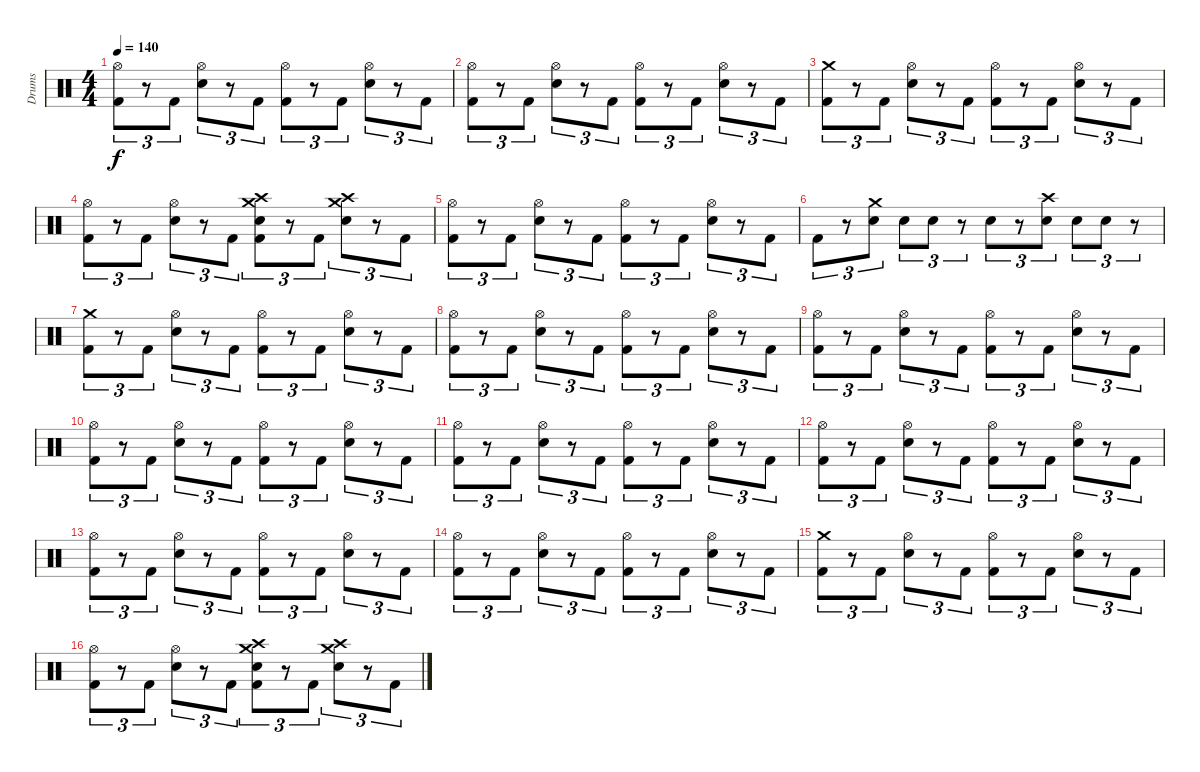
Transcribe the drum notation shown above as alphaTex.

\track ("Drums" "Drums") {instrument percussion}
\staff {score}
\articulation defaults
\ts (4 4)
\tempo 140
\clef neutral
\ks c
("Hi-Hat (open)" "Kick (hit) 2").8{tu (3 2) dy f} r.8{tu (3 2)} "Kick (hit) 2".8{tu (3 2)} ("Hi-Hat (open)" "Snare (hit) 2").8{tu (3 2)} r.8{tu (3 2)} "Kick (hit) 2".8{tu (3 2)} ("Hi-Hat (open)" "Kick (hit) 2").8{tu (3 2)} r.8{tu (3 2)} "Kick (hit) 2".8{tu (3 2)} ("Hi-Hat (open)" "Snare (hit) 2").8{tu (3 2)} r.8{tu (3 2)} "Kick (hit) 2".8{tu (3 2)} |
("Hi-Hat (open)" "Kick (hit) 2").8{tu (3 2)} r.8{tu (3 2)} "Kick (hit) 2".8{tu (3 2)} ("Hi-Hat (open)" "Snare (hit) 2").8{tu (3 2)} r.8{tu (3 2)} "Kick (hit) 2".8{tu (3 2)} ("Hi-Hat (open)" "Kick (hit) 2").8{tu (3 2)} r.8{tu (3 2)} "Kick (hit) 2".8{tu (3 2)} ("Hi-Hat (open)" "Snare (hit) 2").8{tu (3 2)} r.8{tu (3 2)} "Kick (hit) 2".8{tu (3 2)} |
("Crash medium (hit)" "Kick (hit) 2").8{tu (3 2)} r.8{tu (3 2)} "Kick (hit) 2".8{tu (3 2)} ("Hi-Hat (open)" "Snare (hit) 2").8{tu (3 2)} r.8{tu (3 2)} "Kick (hit) 2".8{tu (3 2)} ("Hi-Hat (open)" "Kick (hit) 2").8{tu (3 2)} r.8{tu (3 2)} "Kick (hit) 2".8{tu (3 2)} ("Hi-Hat (open)" "Snare (hit) 2").8{tu (3 2)} r.8{tu (3 2)} "Kick (hit) 2".8{tu (3 2)} |
("Hi-Hat (open)" "Kick (hit) 2").8{tu (3 2)} r.8{tu (3 2)} "Kick (hit) 2".8{tu (3 2)} ("Hi-Hat (open)" "Snare (hit) 2").8{tu (3 2)} r.8{tu (3 2)} "Kick (hit) 2".8{tu (3 2)} ("Crash medium (hit)" "Crash high (hit)" "Snare (hit) 2" "Kick (hit) 2").8{tu (3 2)} r.8{tu (3 2)} "Kick (hit) 2".8{tu (3 2)} ("Crash medium (hit)" "Crash high (hit)" "Snare (hit) 2").8{tu (3 2)} r.8{tu (3 2)} "Kick (hit) 2".8{tu (3 2)} |
("Hi-Hat (open)" "Kick (hit) 2").8{tu (3 2)} r.8{tu (3 2)} "Kick (hit) 2".8{tu (3 2)} ("Hi-Hat (open)" "Snare (hit) 2").8{tu (3 2)} r.8{tu (3 2)} "Kick (hit) 2".8{tu (3 2)} ("Hi-Hat (open)" "Kick (hit) 2").8{tu (3 2)} r.8{tu (3 2)} "Kick (hit) 2".8{tu (3 2)} ("Hi-Hat (open)" "Snare (hit) 2").8{tu (3 2)} r.8{tu (3 2)} "Kick (hit) 2".8{tu (3 2)} |
"Kick (hit) 2".8{tu (3 2)} r.8{tu (3 2)} ("Crash medium (hit)" "Snare (hit) 2").8{tu (3 2)} "Snare (hit) 2".8{tu (3 2)} "Snare (hit) 2".8{tu (3 2)} r.8{tu (3 2)} "Snare (hit) 2".8{tu (3 2)} r.8{tu (3 2)} ("Crash high (hit)" "Snare (hit) 2").8{tu (3 2)} "Snare (hit) 2".8{tu (3 2)} "Snare (hit) 2".8{tu (3 2)} r.8{tu (3 2)} |
("Crash medium (hit)" "Kick (hit) 2").8{tu (3 2)} r.8{tu (3 2)} "Kick (hit) 2".8{tu (3 2)} ("Hi-Hat (open)" "Snare (hit) 2").8{tu (3 2)} r.8{tu (3 2)} "Kick (hit) 2".8{tu (3 2)} ("Hi-Hat (open)" "Kick (hit) 2").8{tu (3 2)} r.8{tu (3 2)} "Kick (hit) 2".8{tu (3 2)} ("Hi-Hat (open)" "Snare (hit) 2").8{tu (3 2)} r.8{tu (3 2)} "Kick (hit) 2".8{tu (3 2)} |
("Hi-Hat (open)" "Kick (hit) 2").8{tu (3 2)} r.8{tu (3 2)} "Kick (hit) 2".8{tu (3 2)} ("Hi-Hat (open)" "Snare (hit) 2").8{tu (3 2)} r.8{tu (3 2)} "Kick (hit) 2".8{tu (3 2)} ("Hi-Hat (open)" "Kick (hit) 2").8{tu (3 2)} r.8{tu (3 2)} "Kick (hit) 2".8{tu (3 2)} ("Hi-Hat (open)" "Snare (hit) 2").8{tu (3 2)} r.8{tu (3 2)} "Kick (hit) 2".8{tu (3 2)} |
("Hi-Hat (open)" "Kick (hit) 2").8{tu (3 2)} r.8{tu (3 2)} "Kick (hit) 2".8{tu (3 2)} ("Hi-Hat (open)" "Snare (hit) 2").8{tu (3 2)} r.8{tu (3 2)} "Kick (hit) 2".8{tu (3 2)} ("Hi-Hat (open)" "Kick (hit) 2").8{tu (3 2)} r.8{tu (3 2)} "Kick (hit) 2".8{tu (3 2)} ("Hi-Hat (open)" "Snare (hit) 2").8{tu (3 2)} r.8{tu (3 2)} "Kick (hit) 2".8{tu (3 2)} |
("Hi-Hat (open)" "Kick (hit) 2").8{tu (3 2)} r.8{tu (3 2)} "Kick (hit) 2".8{tu (3 2)} ("Hi-Hat (open)" "Snare (hit) 2").8{tu (3 2)} r.8{tu (3 2)} "Kick (hit) 2".8{tu (3 2)} ("Hi-Hat (open)" "Kick (hit) 2").8{tu (3 2)} r.8{tu (3 2)} "Kick (hit) 2".8{tu (3 2)} ("Hi-Hat (open)" "Snare (hit) 2").8{tu (3 2)} r.8{tu (3 2)} "Kick (hit) 2".8{tu (3 2)} |
("Hi-Hat (open)" "Kick (hit) 2").8{tu (3 2)} r.8{tu (3 2)} "Kick (hit) 2".8{tu (3 2)} ("Hi-Hat (open)" "Snare (hit) 2").8{tu (3 2)} r.8{tu (3 2)} "Kick (hit) 2".8{tu (3 2)} ("Hi-Hat (open)" "Kick (hit) 2").8{tu (3 2)} r.8{tu (3 2)} "Kick (hit) 2".8{tu (3 2)} ("Hi-Hat (open)" "Snare (hit) 2").8{tu (3 2)} r.8{tu (3 2)} "Kick (hit) 2".8{tu (3 2)} |
("Hi-Hat (open)" "Kick (hit) 2").8{tu (3 2)} r.8{tu (3 2)} "Kick (hit) 2".8{tu (3 2)} ("Hi-Hat (open)" "Snare (hit) 2").8{tu (3 2)} r.8{tu (3 2)} "Kick (hit) 2".8{tu (3 2)} ("Hi-Hat (open)" "Kick (hit) 2").8{tu (3 2)} r.8{tu (3 2)} "Kick (hit) 2".8{tu (3 2)} ("Hi-Hat (open)" "Snare (hit) 2").8{tu (3 2)} r.8{tu (3 2)} "Kick (hit) 2".8{tu (3 2)} |
("Hi-Hat (open)" "Kick (hit) 2").8{tu (3 2)} r.8{tu (3 2)} "Kick (hit) 2".8{tu (3 2)} ("Hi-Hat (open)" "Snare (hit) 2").8{tu (3 2)} r.8{tu (3 2)} "Kick (hit) 2".8{tu (3 2)} ("Hi-Hat (open)" "Kick (hit) 2").8{tu (3 2)} r.8{tu (3 2)} "Kick (hit) 2".8{tu (3 2)} ("Hi-Hat (open)" "Snare (hit) 2").8{tu (3 2)} r.8{tu (3 2)} "Kick (hit) 2".8{tu (3 2)} |
("Hi-Hat (open)" "Kick (hit) 2").8{tu (3 2)} r.8{tu (3 2)} "Kick (hit) 2".8{tu (3 2)} ("Hi-Hat (open)" "Snare (hit) 2").8{tu (3 2)} r.8{tu (3 2)} "Kick (hit) 2".8{tu (3 2)} ("Hi-Hat (open)" "Kick (hit) 2").8{tu (3 2)} r.8{tu (3 2)} "Kick (hit) 2".8{tu (3 2)} ("Hi-Hat (open)" "Snare (hit) 2").8{tu (3 2)} r.8{tu (3 2)} "Kick (hit) 2".8{tu (3 2)} |
("Crash medium (hit)" "Kick (hit) 2").8{tu (3 2)} r.8{tu (3 2)} "Kick (hit) 2".8{tu (3 2)} ("Hi-Hat (open)" "Snare (hit) 2").8{tu (3 2)} r.8{tu (3 2)} "Kick (hit) 2".8{tu (3 2)} ("Hi-Hat (open)" "Kick (hit) 2").8{tu (3 2)} r.8{tu (3 2)} "Kick (hit) 2".8{tu (3 2)} ("Hi-Hat (open)" "Snare (hit) 2").8{tu (3 2)} r.8{tu (3 2)} "Kick (hit) 2".8{tu (3 2)} |
("Hi-Hat (open)" "Kick (hit) 2").8{tu (3 2)} r.8{tu (3 2)} "Kick (hit) 2".8{tu (3 2)} ("Hi-Hat (open)" "Snare (hit) 2").8{tu (3 2)} r.8{tu (3 2)} "Kick (hit) 2".8{tu (3 2)} ("Crash medium (hit)" "Crash high (hit)" "Snare (hit) 2" "Kick (hit) 2").8{tu (3 2)} r.8{tu (3 2)} "Kick (hit) 2".8{tu (3 2)} ("Crash medium (hit)" "Crash high (hit)" "Snare (hit) 2").8{tu (3 2)} r.8{tu (3 2)} "Kick (hit) 2".8{tu (3 2)}
